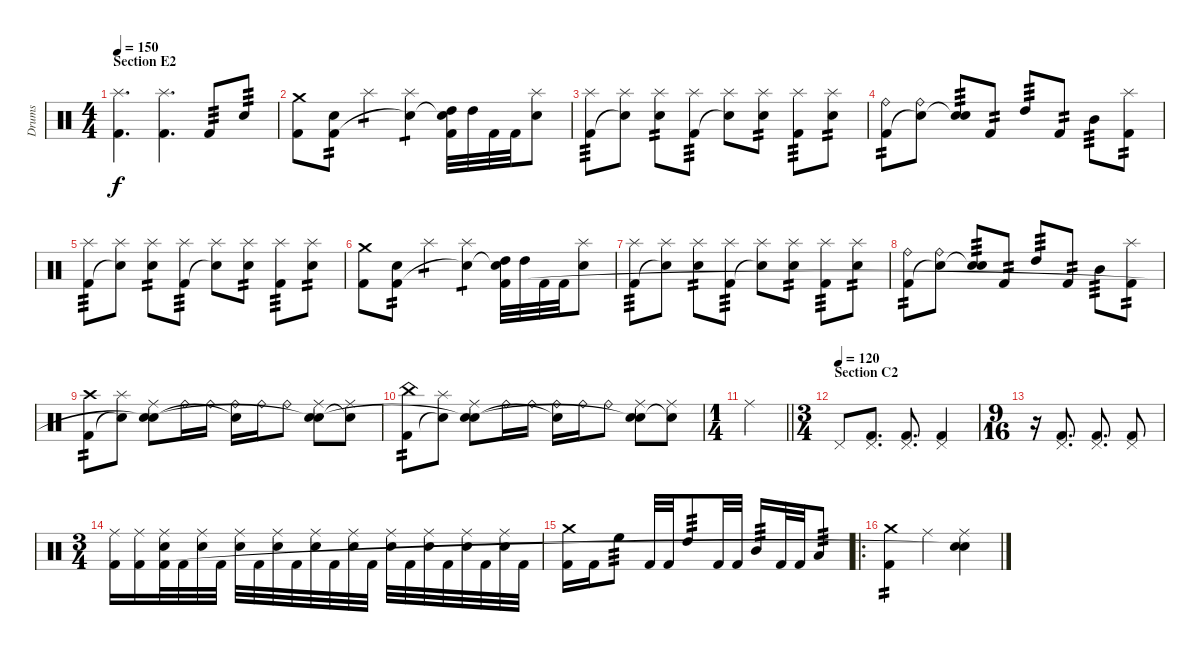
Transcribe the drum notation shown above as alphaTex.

\track ("Drums" "Drums") {instrument percussion}
\staff {score}
\articulation defaults
\ts (4 4)
\section ("" "Section E2")
\tempo 150
\clef neutral
\ks c
("Splash (hit)" "Kick (hit) 2").4{d dy f} ("Splash (hit)" "Kick (hit) 2").4{d} "Kick (hit) 2".8{tp 3} "Electric Snare (hit)".8{tp 3} |
("Crash medium (hit)" "Kick (hit) 2").8 ("Snare (hit) 2" "Kick (hit) 2").8{tp 2} "Splash (hit)".4{tp 1} ("Splash (hit)" "Snare (hit)"{t}).4{tp 1} ("High Tom (hit)" "Snare (hit)"{t} "Kick (hit) 2"{t}).32 "High Tom (hit)".32 "Kick (hit) 2".32 "Kick (hit) 2".32 ("Splash (hit)" "Electric Snare (hit)").8 |
("Splash (hit)" "Kick (hit) 2").8{tp 3} ("Splash (hit)" "Snare (hit)"{t}).8 ("Splash (hit)" "Electric Snare (hit)").8{tp 2} ("Splash (hit)" "Kick (hit) 2").8{tp 3} ("Splash (hit)" "Snare (hit)"{t}).8 ("Splash (hit)" "Electric Snare (hit)").8{tp 2} ("Splash (hit)" "Kick (hit) 2").8{tp 3} ("Splash (hit)" "Electric Snare (hit)").8{tp 2} |
("Ride (bell)" "Kick (hit) 2").8{tp 2} ("Ride (bell)" "Snare (hit)"{t}).8 ("Electric Snare (hit)" "Snare (hit)"{t}).8{tp 3} "Kick (hit) 2".8{tp 2} "High Tom (hit)".8{tp 3} "Kick (hit) 2".8{tp 2} "Mid Tom (hit)".8{tp 3} ("Splash (hit)" "Kick (hit) 2").8{tp 2} |
("Splash (hit)" "Kick (hit) 2").8{tp 3} ("Splash (hit)" "Snare (hit)"{t}).8 ("Splash (hit)" "Electric Snare (hit)").8{tp 2} ("Splash (hit)" "Kick (hit) 2").8{tp 3} ("Splash (hit)" "Snare (hit)"{t}).8 ("Splash (hit)" "Electric Snare (hit)").8{tp 2} ("Splash (hit)" "Kick (hit) 2").8{tp 3} ("Splash (hit)" "Electric Snare (hit)").8{tp 2} |
("Crash medium (hit)" "Kick (hit) 2").8 ("Snare (hit) 2" "Kick (hit) 2").8{tp 2} "Splash (hit)".4{tp 1} ("Splash (hit)" "Snare (hit)"{t}).4{tp 1} ("High Tom (hit)" "Snare (hit)"{t} "Kick (hit) 2").32 "High Tom (hit)".32 "Kick (hit) 2".32 "Kick (hit) 2".32 ("Splash (hit)" "Electric Snare (hit)").8 |
("Splash (hit)" "Kick (hit) 2").8{tp 3} ("Splash (hit)" "Snare (hit)"{t}).8 ("Splash (hit)" "Electric Snare (hit)").8{tp 2} ("Splash (hit)" "Kick (hit) 2").8{tp 3} ("Splash (hit)" "Snare (hit)"{t}).8 ("Splash (hit)" "Electric Snare (hit)").8{tp 2} ("Splash (hit)" "Kick (hit) 2").8{tp 3} ("Splash (hit)" "Electric Snare (hit)").8{tp 2} |
("Ride (bell)" "Kick (hit) 2").8{tp 2} ("Ride (bell)" "Snare (hit)"{t}).8 ("Electric Snare (hit)" "Snare (hit)"{t}).8{tp 3} "Kick (hit) 2".8{tp 2} "High Tom (hit)".8{tp 3} "Kick (hit) 2".8{tp 2} "Mid Tom (hit)".8{tp 3} ("Splash (hit)" "Kick (hit) 2").8{tp 2} |
("Crash high (hit)" "Kick (hit) 2").8{tp 2} ("Splash (hit)" "Snare (hit)"{t}).8 ("Ride (middle)" "Electric Snare (hit)" "Snare (hit)"{t}).8 "Ride (bell)".16 "Ride (bell)".16 ("Ride (bell)" "Snare (hit)"{t}).16 "Ride (bell)".16 "Ride (bell)".8 ("Ride (middle)" "Electric Snare (hit)" "Snare (hit)"{t}).8 ("Ride (middle)" "Snare (hit)"{t}).8 |
("China (hit)" "Kick (hit) 2").8{tp 2} ("Splash (hit)" "Snare (hit)"{t}).8 ("Ride (middle)" "Electric Snare (hit)" "Snare (hit)"{t}).8 "Ride (bell)".16 "Ride (bell)".16 ("Ride (bell)" "Snare (hit)"{t}).16 "Ride (bell)".16 "Ride (bell)".8 ("Ride (middle)" "Electric Snare (hit)" "Snare (hit)"{t}).8 ("Ride (middle)" "Snare (hit)"{t}).8 |
\ts (1 4)
\barLineRight lightlight "Ride (middle)".4
|
\ts (3 4)
\section ("" "Section C2")
\tempo (120)
"Pedal Hi-Hat (hit)".8 ("Pedal Hi-Hat (hit)" "Kick (hit) 2").8{d} ("Pedal Hi-Hat (hit)" "Kick (hit) 2").8{d} ("Pedal Hi-Hat (hit)" "Kick (hit) 2").4 |
\ts (9 16)
r.16 ("Pedal Hi-Hat (hit)" "Kick (hit) 2").8{d} ("Pedal Hi-Hat (hit)" "Kick (hit) 2").8{d} ("Pedal Hi-Hat (hit)" "Kick (hit) 2").8 |
\ts (3 4)
("Ride (middle)" "Kick (hit) 2").16 ("Ride (middle)" "Kick (hit) 2").16 ("Ride (middle)" "Snare (hit) 2" "Kick (hit) 2").32 "Kick (hit) 2".32 ("Ride (middle)" "Snare (hit) 2").32 "Kick (hit) 2".32 ("Ride (middle)" "Snare (hit) 2").32 "Kick (hit) 2".32 ("Ride (middle)" "Snare (hit) 2").32 "Kick (hit) 2".32 ("Ride (middle)" "Snare (hit) 2").32 "Kick (hit) 2".32 ("Ride (middle)" "Snare (hit) 2").32 "Kick (hit) 2".32 ("Ride (middle)" "Snare (hit) 2").32 "Kick (hit) 2".32 ("Ride (middle)" "Snare (hit) 2").32 "Kick (hit) 2".32 ("Ride (middle)" "Snare (hit) 2").32 "Kick (hit) 2".32 ("Ride (middle)" "Snare (hit) 2").32 "Kick (hit) 2".32 |
("Crash medium (hit)" "Kick (hit) 2").16 "Kick (hit) 2".16 "High Floor Tom (hit)".8{tp 3} "Kick (hit) 2".32 "Kick (hit) 2".32 "High Tom (hit)".8{tp 3} "Kick (hit) 2".32 "Kick (hit) 2".32 "Mid Tom (hit)".16{tp 3} "Kick (hit) 2".32 "Kick (hit) 2".32 "Low Tom (hit)".8{tp 3} |
\ro
("Crash medium (hit)" "Kick (hit) 2").4{tp 2} "Ride (middle)".4 ("Ride (middle)" "Snare (hit) 2" "Snare (hit)"{t}).4
